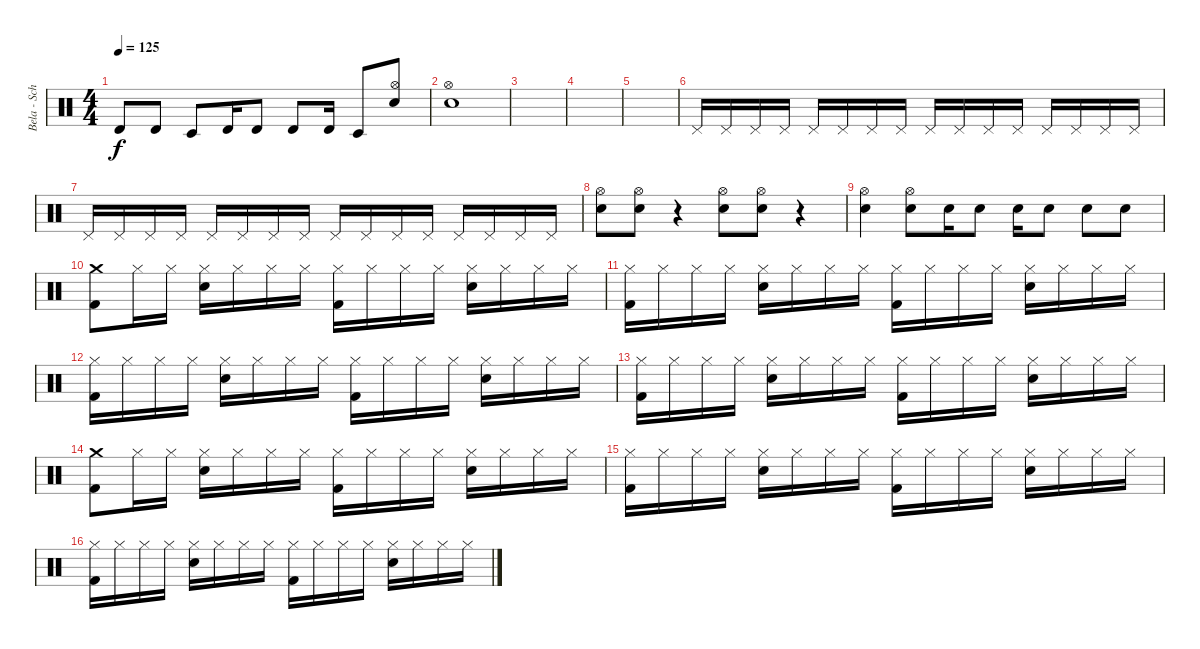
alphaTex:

\track ("Bela - Schlagzeug" "Bela - Sch") {instrument percussion}
\staff {score}
\articulation defaults
\ts (4 4)
\tempo 125
\clef neutral
\ks c "Timbale high (hit)".8{dy f} "Timbale high (hit)".8 "Timbale low (hit)".8 "Timbale high (hit)".16 "Timbale high (hit)".8 "Timbale high (hit)".8 "Timbale high (hit)".16 "Timbale low (hit)".8
("Hi-Hat (open)" "Electric Snare (hit)").8 |
("Hi-Hat (open)" "Electric Snare (hit)").1 |
|
|
|
"Pedal Hi-Hat (hit)".16 "Pedal Hi-Hat (hit)".16 "Pedal Hi-Hat (hit)".16 "Pedal Hi-Hat (hit)".16 "Pedal Hi-Hat (hit)".16 "Pedal Hi-Hat (hit)".16 "Pedal Hi-Hat (hit)".16 "Pedal Hi-Hat (hit)".16 "Pedal Hi-Hat (hit)".16 "Pedal Hi-Hat (hit)".16 "Pedal Hi-Hat (hit)".16 "Pedal Hi-Hat (hit)".16 "Pedal Hi-Hat (hit)".16 "Pedal Hi-Hat (hit)".16 "Pedal Hi-Hat (hit)".16 "Pedal Hi-Hat (hit)".16 |
"Pedal Hi-Hat (hit)".16 "Pedal Hi-Hat (hit)".16 "Pedal Hi-Hat (hit)".16 "Pedal Hi-Hat (hit)".16 "Pedal Hi-Hat (hit)".16 "Pedal Hi-Hat (hit)".16 "Pedal Hi-Hat (hit)".16 "Pedal Hi-Hat (hit)".16 "Pedal Hi-Hat (hit)".16 "Pedal Hi-Hat (hit)".16 "Pedal Hi-Hat (hit)".16 "Pedal Hi-Hat (hit)".16 "Pedal Hi-Hat (hit)".16 "Pedal Hi-Hat (hit)".16 "Pedal Hi-Hat (hit)".16 "Pedal Hi-Hat (hit)".16 |
("Hi-Hat (open)" "Electric Snare (hit)").8 ("Hi-Hat (open)" "Electric Snare (hit)").8 r.4 ("Hi-Hat (open)" "Electric Snare (hit)").8 ("Hi-Hat (open)" "Electric Snare (hit)").8 r.4 |
("Hi-Hat (open)" "Electric Snare (hit)").4 ("Hi-Hat (open)" "Electric Snare (hit)").8 "Electric Snare (hit)".16 "Electric Snare (hit)".8 "Electric Snare (hit)".16 "Electric Snare (hit)".8 "Electric Snare (hit)".8 "Electric Snare (hit)".8 |
("Crash medium (hit)" "Kick (hit) 2").8 "Hi-Hat (closed)".16 "Hi-Hat (closed)".16 ("Hi-Hat (closed)" "Electric Snare (hit)").16 "Hi-Hat (closed)".16 "Hi-Hat (closed)".16 "Hi-Hat (closed)".16 ("Hi-Hat (closed)" "Kick (hit) 2").16 "Hi-Hat (closed)".16 "Hi-Hat (closed)".16 "Hi-Hat (closed)".16 ("Hi-Hat (closed)" "Electric Snare (hit)").16 "Hi-Hat (closed)".16 "Hi-Hat (closed)".16 "Hi-Hat (closed)".16 |
("Hi-Hat (closed)" "Kick (hit) 2").16 "Hi-Hat (closed)".16 "Hi-Hat (closed)".16 "Hi-Hat (closed)".16 ("Hi-Hat (closed)" "Electric Snare (hit)").16 "Hi-Hat (closed)".16 "Hi-Hat (closed)".16 "Hi-Hat (closed)".16 ("Hi-Hat (closed)" "Kick (hit) 2").16 "Hi-Hat (closed)".16 "Hi-Hat (closed)".16 "Hi-Hat (closed)".16 ("Hi-Hat (closed)" "Electric Snare (hit)").16 "Hi-Hat (closed)".16 "Hi-Hat (closed)".16 "Hi-Hat (closed)".16 |
("Hi-Hat (closed)" "Kick (hit) 2").16 "Hi-Hat (closed)".16 "Hi-Hat (closed)".16 "Hi-Hat (closed)".16 ("Hi-Hat (closed)" "Electric Snare (hit)").16 "Hi-Hat (closed)".16 "Hi-Hat (closed)".16 "Hi-Hat (closed)".16 ("Hi-Hat (closed)" "Kick (hit) 2").16 "Hi-Hat (closed)".16 "Hi-Hat (closed)".16 "Hi-Hat (closed)".16 ("Hi-Hat (closed)" "Electric Snare (hit)").16 "Hi-Hat (closed)".16 "Hi-Hat (closed)".16 "Hi-Hat (closed)".16 |
("Hi-Hat (closed)" "Kick (hit) 2").16 "Hi-Hat (closed)".16 "Hi-Hat (closed)".16 "Hi-Hat (closed)".16 ("Hi-Hat (closed)" "Electric Snare (hit)").16 "Hi-Hat (closed)".16 "Hi-Hat (closed)".16 "Hi-Hat (closed)".16 ("Hi-Hat (closed)" "Kick (hit) 2").16 "Hi-Hat (closed)".16 "Hi-Hat (closed)".16 "Hi-Hat (closed)".16 ("Hi-Hat (closed)" "Electric Snare (hit)").16 "Hi-Hat (closed)".16 "Hi-Hat (closed)".16 "Hi-Hat (closed)".16 |
("Crash medium (hit)" "Kick (hit) 2").8 "Hi-Hat (closed)".16 "Hi-Hat (closed)".16 ("Hi-Hat (closed)" "Electric Snare (hit)").16 "Hi-Hat (closed)".16 "Hi-Hat (closed)".16 "Hi-Hat (closed)".16 ("Hi-Hat (closed)" "Kick (hit) 2").16 "Hi-Hat (closed)".16 "Hi-Hat (closed)".16 "Hi-Hat (closed)".16 ("Hi-Hat (closed)" "Electric Snare (hit)").16 "Hi-Hat (closed)".16 "Hi-Hat (closed)".16 "Hi-Hat (closed)".16 |
("Hi-Hat (closed)" "Kick (hit) 2").16 "Hi-Hat (closed)".16 "Hi-Hat (closed)".16 "Hi-Hat (closed)".16 ("Hi-Hat (closed)" "Electric Snare (hit)").16 "Hi-Hat (closed)".16 "Hi-Hat (closed)".16 "Hi-Hat (closed)".16 ("Hi-Hat (closed)" "Kick (hit) 2").16 "Hi-Hat (closed)".16 "Hi-Hat (closed)".16 "Hi-Hat (closed)".16 ("Hi-Hat (closed)" "Electric Snare (hit)").16 "Hi-Hat (closed)".16 "Hi-Hat (closed)".16 "Hi-Hat (closed)".16 |
("Hi-Hat (closed)" "Kick (hit) 2").16 "Hi-Hat (closed)".16 "Hi-Hat (closed)".16 "Hi-Hat (closed)".16 ("Hi-Hat (closed)" "Electric Snare (hit)").16 "Hi-Hat (closed)".16 "Hi-Hat (closed)".16 "Hi-Hat (closed)".16 ("Hi-Hat (closed)" "Kick (hit) 2").16 "Hi-Hat (closed)".16 "Hi-Hat (closed)".16 "Hi-Hat (closed)".16 ("Hi-Hat (closed)" "Electric Snare (hit)").16 "Hi-Hat (closed)".16 "Hi-Hat (closed)".16 "Hi-Hat (closed)".16
